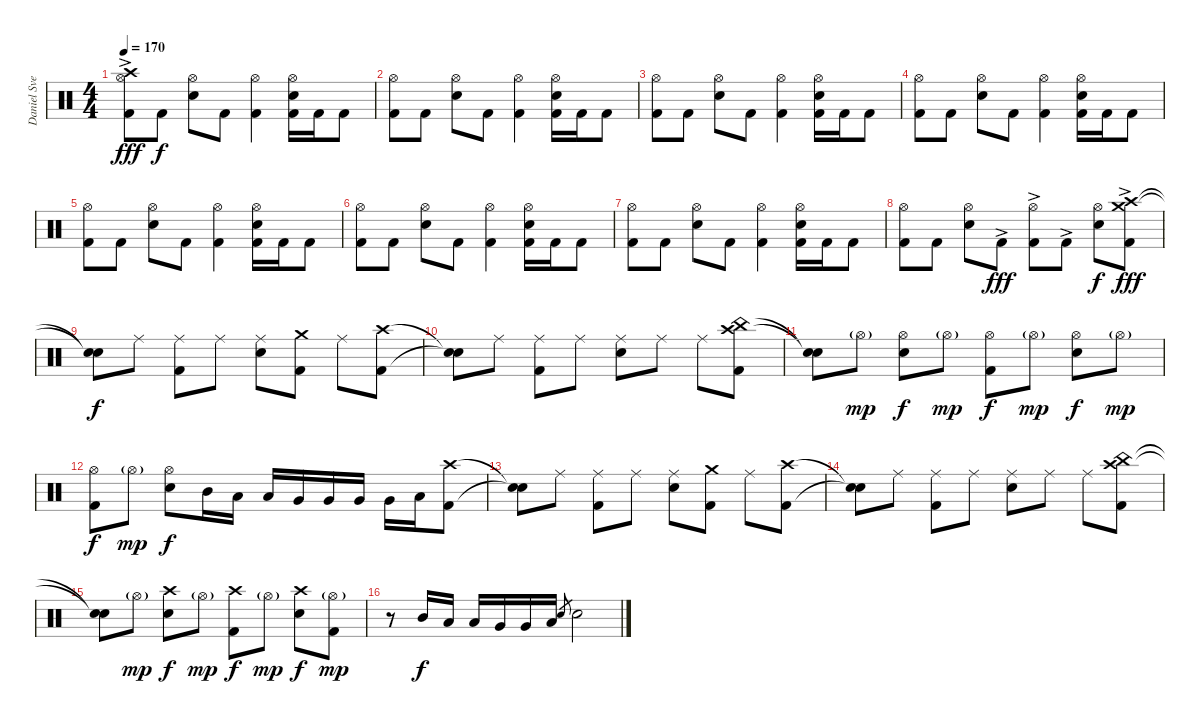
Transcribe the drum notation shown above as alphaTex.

\track ("Daniel Svensson" "Daniel Sve") {instrument percussion}
\staff {score}
\articulation defaults
\ts (4 4)
\tempo 170
\clef neutral
\ks c
("Crash high (hit)"{ac} "Hi-Hat (open)" "Kick (hit) 2").8{dy fff} "Kick (hit) 2".8{dy f} ("Hi-Hat (open)" "Electric Snare (hit)").8 "Kick (hit) 2".8 ("Hi-Hat (open)" "Kick (hit) 2").4 ("Hi-Hat (open)" "Electric Snare (hit)" "Kick (hit) 2").16 "Kick (hit) 2".16 "Kick (hit) 2".8 |
("Hi-Hat (open)" "Kick (hit) 2").8 "Kick (hit) 2".8 ("Hi-Hat (open)" "Electric Snare (hit)").8 "Kick (hit) 2".8 ("Hi-Hat (open)" "Kick (hit) 2").4 ("Hi-Hat (open)" "Electric Snare (hit)" "Kick (hit) 2").16 "Kick (hit) 2".16 "Kick (hit) 2".8 |
("Hi-Hat (open)" "Kick (hit) 2").8 "Kick (hit) 2".8 ("Hi-Hat (open)" "Electric Snare (hit)").8 "Kick (hit) 2".8 ("Hi-Hat (open)" "Kick (hit) 2").4 ("Hi-Hat (open)" "Electric Snare (hit)" "Kick (hit) 2").16 "Kick (hit) 2".16 "Kick (hit) 2".8 |
("Hi-Hat (open)" "Kick (hit) 2").8 "Kick (hit) 2".8 ("Hi-Hat (open)" "Electric Snare (hit)").8 "Kick (hit) 2".8 ("Hi-Hat (open)" "Kick (hit) 2").4 ("Hi-Hat (open)" "Electric Snare (hit)" "Kick (hit) 2").16 "Kick (hit) 2".16 "Kick (hit) 2".8 |
("Hi-Hat (open)" "Kick (hit) 2").8 "Kick (hit) 2".8 ("Hi-Hat (open)" "Electric Snare (hit)").8 "Kick (hit) 2".8 ("Hi-Hat (open)" "Kick (hit) 2").4 ("Hi-Hat (open)" "Electric Snare (hit)" "Kick (hit) 2").16 "Kick (hit) 2".16 "Kick (hit) 2".8 |
("Hi-Hat (open)" "Kick (hit) 2").8 "Kick (hit) 2".8 ("Hi-Hat (open)" "Electric Snare (hit)").8 "Kick (hit) 2".8 ("Hi-Hat (open)" "Kick (hit) 2").4 ("Hi-Hat (open)" "Electric Snare (hit)" "Kick (hit) 2").16 "Kick (hit) 2".16 "Kick (hit) 2".8 |
("Hi-Hat (open)" "Kick (hit) 2").8 "Kick (hit) 2".8 ("Hi-Hat (open)" "Electric Snare (hit)").8 "Kick (hit) 2".8 ("Hi-Hat (open)" "Kick (hit) 2").4 ("Hi-Hat (open)" "Electric Snare (hit)" "Kick (hit) 2").16 "Kick (hit) 2".16 "Kick (hit) 2".8 |
("Hi-Hat (open)" "Kick (hit) 2").8 "Kick (hit) 2".8 ("Hi-Hat (open)" "Electric Snare (hit)").8 "Kick (hit) 2"{ac}.8{dy fff} ("Hi-Hat (open)" "Kick (hit) 2"{ac}).8 "Kick (hit) 2"{ac}.8 ("Hi-Hat (open)" "Electric Snare (hit)").8{dy f} ("Crash high (hit)"{ac} "Crash medium (hit)"{ac} "Kick (hit) 2"{ac}).8{dy fff} |
("Snare (hit)"{t} "Snare (hit)"{t}).8{dy f} "Ride (middle)".8 ("Ride (middle)" "Kick (hit) 2").8 "Ride (middle)".8 ("Ride (middle)" "Electric Snare (hit)").8 ("Crash medium (hit)" "Kick (hit) 2").8 "Ride (middle)".8 ("Crash high (hit)" "Kick (hit) 2").8 |
("Snare (hit)"{t} "Snare (hit)"{t}).8 "Ride (middle)".8 ("Ride (middle)" "Kick (hit) 2").8 "Ride (middle)".8 ("Ride (middle)" "Electric Snare (hit)").8 "Ride (middle)".8 "Ride (middle)".8 ("Crash high (hit)" "China (hit)" "Kick (hit) 2").8 |
("Snare (hit)"{t} "Snare (hit)"{t}).8 "Hi-Hat (open)"{g}.8{dy mp} ("Hi-Hat (open)" "Electric Snare (hit)").8{dy f} "Hi-Hat (open)"{g}.8{dy mp} ("Hi-Hat (open)" "Kick (hit) 2").8{dy f} "Hi-Hat (open)"{g}.8{dy mp} ("Hi-Hat (open)" "Electric Snare (hit)").8{dy f} "Hi-Hat (open)"{g}.8{dy mp} |
("Hi-Hat (open)" "Kick (hit) 2").8{dy f} "Hi-Hat (open)"{g}.8{dy mp} ("Hi-Hat (open)" "Electric Snare (hit)").8{dy f} "Mid Tom (hit)".16 "Low Tom (hit)".16 "Low Tom (hit)".16 "Very Low Tom (hit)".16 "Very Low Tom (hit)".16 "Very Low Tom (hit)".16 "Very Low Tom (hit)".16 "Low Floor Tom (hit)".16 ("Crash high (hit)" "Kick (hit) 2").8 |
("Snare (hit)"{t} "Snare (hit)"{t}).8 "Ride (middle)".8 ("Ride (middle)" "Kick (hit) 2").8 "Ride (middle)".8 ("Ride (middle)" "Electric Snare (hit)").8 ("Crash medium (hit)" "Kick (hit) 2").8 "Ride (middle)".8 ("Crash high (hit)" "Kick (hit) 2").8 |
("Snare (hit)"{t} "Snare (hit)"{t}).8 "Ride (middle)".8 ("Ride (middle)" "Kick (hit) 2").8 "Ride (middle)".8 ("Ride (middle)" "Electric Snare (hit)").8 "Ride (middle)".8 "Ride (middle)".8 ("Crash high (hit)" "China (hit)" "Kick (hit) 2").8 |
("Snare (hit)"{t} "Snare (hit)"{t}).8 "Hi-Hat (open)"{g}.8{dy mp} ("Crash high (hit)" "Electric Snare (hit)").8{dy f} "Hi-Hat (open)"{g}.8{dy mp} ("Crash high (hit)" "Kick (hit) 2").8{dy f} "Hi-Hat (open)"{g}.8{dy mp} ("Crash high (hit)" "Electric Snare (hit)").8{dy f} ("Hi-Hat (open)"{g} "Kick (hit) 2").8{dy mp} |
r.8 "Mid Tom (hit)".16{dy f} "Low Tom (hit)".16 "Low Tom (hit)".16 "Very Low Tom (hit)".16 "Very Low Tom (hit)".16 "Low Floor Tom (hit)".16 "Electric Snare (hit)".8{gr} "Electric Snare (hit)".2
